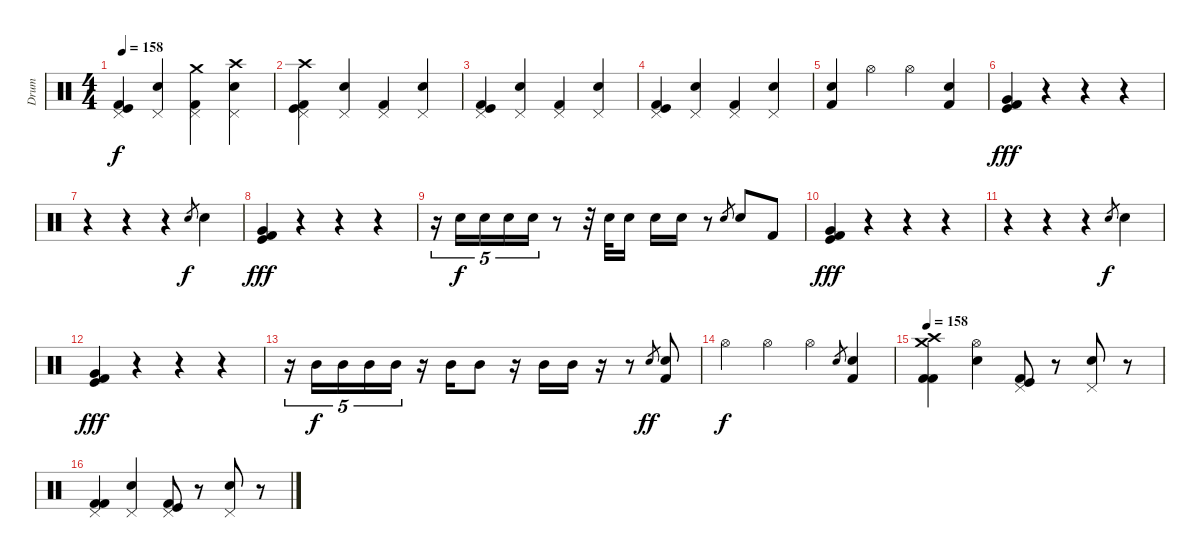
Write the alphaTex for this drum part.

\track ("Drum" "Drum") {instrument percussion}
\staff {score}
\articulation defaults
\ts (4 4)
\tempo 158
\clef neutral
\ks c
("Kick (hit) 2" "Kick (hit)" "Pedal Hi-Hat (hit)").4{dy f} ("Pedal Hi-Hat (hit)" "Electric Snare (hit)").4 ("Crash medium (hit)" "Kick (hit) 2" "Pedal Hi-Hat (hit)").4 ("Crash high (hit)" "Pedal Hi-Hat (hit)" "Electric Snare (hit)").4 |
("Crash high (hit)" "Kick (hit) 2" "Kick (hit)" "Pedal Hi-Hat (hit)").4 ("Pedal Hi-Hat (hit)" "Electric Snare (hit)").4 ("Kick (hit) 2" "Pedal Hi-Hat (hit)").4 ("Pedal Hi-Hat (hit)" "Electric Snare (hit)").4 |
("Kick (hit) 2" "Kick (hit)" "Pedal Hi-Hat (hit)").4 ("Pedal Hi-Hat (hit)" "Electric Snare (hit)").4 ("Kick (hit) 2" "Pedal Hi-Hat (hit)").4 ("Pedal Hi-Hat (hit)" "Electric Snare (hit)").4 |
("Kick (hit) 2" "Kick (hit)" "Pedal Hi-Hat (hit)").4 ("Pedal Hi-Hat (hit)" "Electric Snare (hit)").4 ("Kick (hit) 2" "Pedal Hi-Hat (hit)").4 ("Pedal Hi-Hat (hit)" "Electric Snare (hit)").4 |
("Electric Snare (hit)" "Kick (hit) 2").4 "Hi-Hat (open)".4 "Hi-Hat (open)".4 ("Kick (hit) 2" "Electric Snare (hit)").4 |
("Very Low Tom (hit)" "Kick (hit)" "Kick (hit) 2").4{dy fff} r.4 r.4 r.4 |
r.4 r.4 r.4 "Electric Snare (hit)".8{gr dy f} "Electric Snare (hit)".4 |
("Very Low Tom (hit)" "Kick (hit)" "Kick (hit) 2").4{dy fff} r.4 r.4 r.4 |
r.16{tu (5 4)} "Electric Snare (hit)".16{tu (5 4) dy f} "Electric Snare (hit)".16{tu (5 4)} "Electric Snare (hit)".16{tu (5 4)} "Electric Snare (hit)".16{tu (5 4)} r.8 r.32 "Electric Snare (hit)".32 "Electric Snare (hit)".16 "Electric Snare (hit)".16 "Electric Snare (hit)".16 r.8 "Electric Snare (hit)".8{gr} "Electric Snare (hit)".8 "Kick (hit) 2".8 |
("Very Low Tom (hit)" "Kick (hit)" "Kick (hit) 2").4{dy fff} r.4 r.4 r.4 |
r.4 r.4 r.4 "Electric Snare (hit)".8{gr dy f} "Electric Snare (hit)".4 |
("Very Low Tom (hit)" "Kick (hit)" "Kick (hit) 2").4{dy fff} r.4 r.4 r.4 |
r.16{tu (5 4)} "Mid Tom (hit)".16{tu (5 4) dy f} "Mid Tom (hit)".16{tu (5 4)} "Mid Tom (hit)".16{tu (5 4)} "Mid Tom (hit)".16{tu (5 4)} r.16 "Mid Tom (hit)".16 "Mid Tom (hit)".8 r.16 "Mid Tom (hit)".16 "Mid Tom (hit)".16 r.16 r.8 "Electric Snare (hit)".8{gr dy ff} ("Kick (hit) 2" "Electric Snare (hit)").8 |
"Hi-Hat (open)".4{dy f} "Hi-Hat (open)".4 "Hi-Hat (open)".4 "Electric Snare (hit)".8{gr} ("Electric Snare (hit)" "Kick (hit) 2").4 |
\tempo 158
("Crash high (hit)" "Kick (hit) 2" "Kick (hit) 2" "Crash medium (hit)").4 ("Hi-Hat (open)" "Electric Snare (hit)").4 ("Pedal Hi-Hat (hit)" "Kick (hit) 2" "Kick (hit)").8 r.8 ("Pedal Hi-Hat (hit)" "Electric Snare (hit)").8 r.8 |
("Pedal Hi-Hat (hit)" "Kick (hit) 2" "Kick (hit) 2").4 ("Pedal Hi-Hat (hit)" "Electric Snare (hit)").4 ("Pedal Hi-Hat (hit)" "Kick (hit) 2" "Kick (hit)").8 r.8 ("Pedal Hi-Hat (hit)" "Electric Snare (hit)").8 r.8
